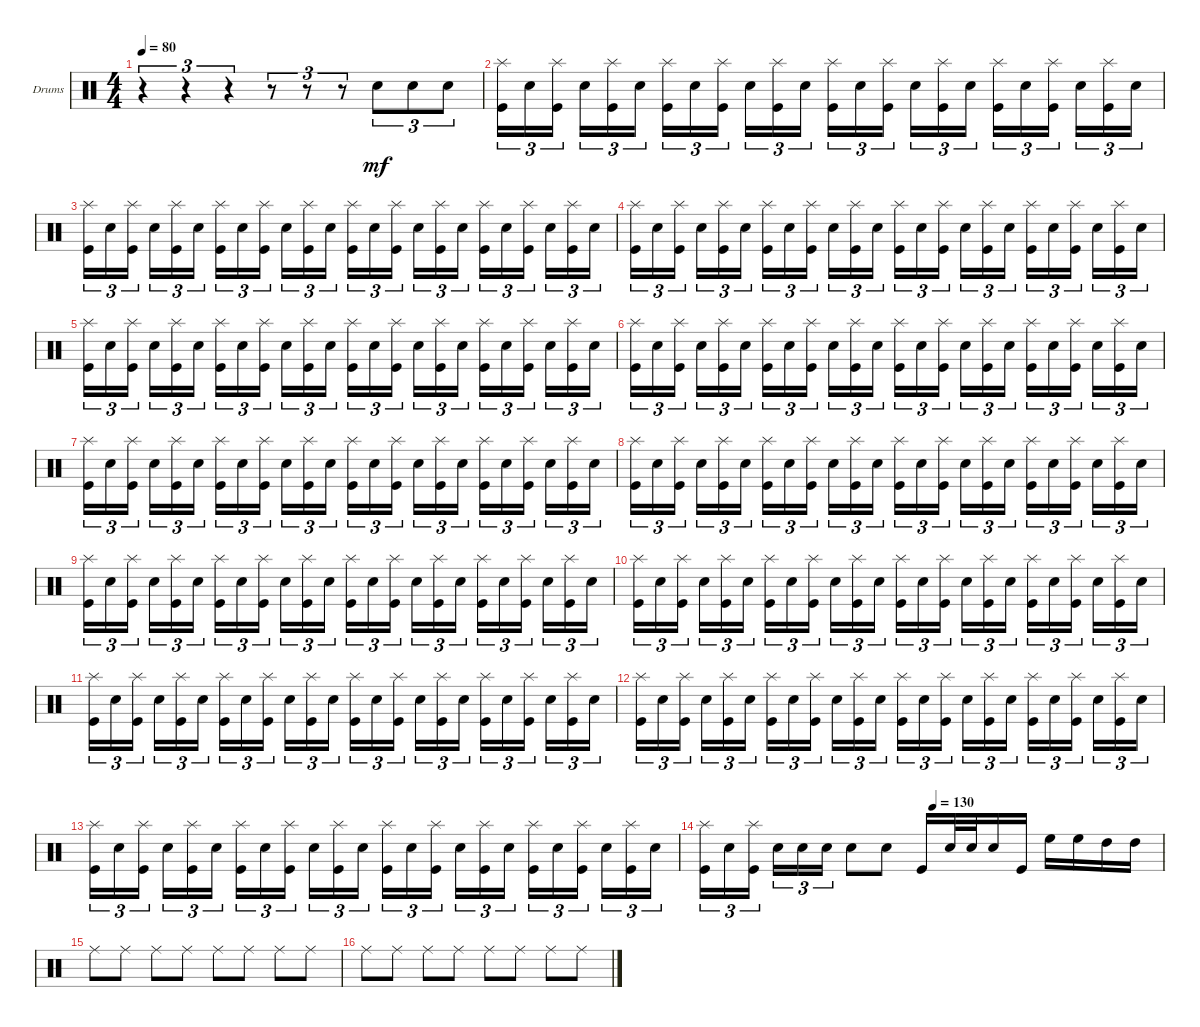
\defaultSystemsLayout 4
\bracketExtendMode groupsimilarinstruments
\firstSystemTrackNameOrientation horizontal
\otherSystemsTrackNameOrientation horizontal
\track ("Drumkit" "Drums") {instrument percussion}
\staff {score}
\articulation defaults
\ts (4 4)
\tempo 80
\clef neutral
\ks c
r.4{tu (3 2) dy mf} r.4{tu (3 2)} r.4{tu (3 2)} r.8{tu (3 2)} r.8{tu (3 2)} r.8{tu (3 2)} "Snare (hit) 2".8{tu (3 2)} "Snare (hit) 2".8{tu (3 2)} "Snare (hit) 2".8{tu (3 2)} |
("Kick (hit)" "Splash (hit)").16{tu (3 2)} "Snare (hit) 2".16{tu (3 2)} ("Kick (hit)" "Splash (hit)").16{tu (3 2)} "Snare (hit) 2".16{tu (3 2)} ("Kick (hit)" "Splash (hit)").16{tu (3 2)} "Snare (hit) 2".16{tu (3 2)} ("Kick (hit)" "Splash (hit)").16{tu (3 2)} "Snare (hit) 2".16{tu (3 2)} ("Kick (hit)" "Splash (hit)").16{tu (3 2)} "Snare (hit) 2".16{tu (3 2)} ("Kick (hit)" "Splash (hit)").16{tu (3 2)} "Snare (hit) 2".16{tu (3 2)} ("Kick (hit)" "Splash (hit)").16{tu (3 2)} "Snare (hit) 2".16{tu (3 2)} ("Kick (hit)" "Splash (hit)").16{tu (3 2)} "Snare (hit) 2".16{tu (3 2)} ("Kick (hit)" "Splash (hit)").16{tu (3 2)} "Snare (hit) 2".16{tu (3 2)} ("Kick (hit)" "Splash (hit)").16{tu (3 2)} "Snare (hit) 2".16{tu (3 2)} ("Kick (hit)" "Splash (hit)").16{tu (3 2)} "Snare (hit) 2".16{tu (3 2)} ("Kick (hit)" "Splash (hit)").16{tu (3 2)} "Snare (hit) 2".16{tu (3 2)} |
("Kick (hit)" "Splash (hit)").16{tu (3 2)} "Snare (hit) 2".16{tu (3 2)} ("Kick (hit)" "Splash (hit)").16{tu (3 2)} "Snare (hit) 2".16{tu (3 2)} ("Kick (hit)" "Splash (hit)").16{tu (3 2)} "Snare (hit) 2".16{tu (3 2)} ("Kick (hit)" "Splash (hit)").16{tu (3 2)} "Snare (hit) 2".16{tu (3 2)} ("Kick (hit)" "Splash (hit)").16{tu (3 2)} "Snare (hit) 2".16{tu (3 2)} ("Kick (hit)" "Splash (hit)").16{tu (3 2)} "Snare (hit) 2".16{tu (3 2)} ("Kick (hit)" "Splash (hit)").16{tu (3 2)} "Snare (hit) 2".16{tu (3 2)} ("Kick (hit)" "Splash (hit)").16{tu (3 2)} "Snare (hit) 2".16{tu (3 2)} ("Kick (hit)" "Splash (hit)").16{tu (3 2)} "Snare (hit) 2".16{tu (3 2)} ("Kick (hit)" "Splash (hit)").16{tu (3 2)} "Snare (hit) 2".16{tu (3 2)} ("Kick (hit)" "Splash (hit)").16{tu (3 2)} "Snare (hit) 2".16{tu (3 2)} ("Kick (hit)" "Splash (hit)").16{tu (3 2)} "Snare (hit) 2".16{tu (3 2)} |
("Kick (hit)" "Splash (hit)").16{tu (3 2)} "Snare (hit) 2".16{tu (3 2)} ("Kick (hit)" "Splash (hit)").16{tu (3 2)} "Snare (hit) 2".16{tu (3 2)} ("Kick (hit)" "Splash (hit)").16{tu (3 2)} "Snare (hit) 2".16{tu (3 2)} ("Kick (hit)" "Splash (hit)").16{tu (3 2)} "Snare (hit) 2".16{tu (3 2)} ("Kick (hit)" "Splash (hit)").16{tu (3 2)} "Snare (hit) 2".16{tu (3 2)} ("Kick (hit)" "Splash (hit)").16{tu (3 2)} "Snare (hit) 2".16{tu (3 2)} ("Kick (hit)" "Splash (hit)").16{tu (3 2)} "Snare (hit) 2".16{tu (3 2)} ("Kick (hit)" "Splash (hit)").16{tu (3 2)} "Snare (hit) 2".16{tu (3 2)} ("Kick (hit)" "Splash (hit)").16{tu (3 2)} "Snare (hit) 2".16{tu (3 2)} ("Kick (hit)" "Splash (hit)").16{tu (3 2)} "Snare (hit) 2".16{tu (3 2)} ("Kick (hit)" "Splash (hit)").16{tu (3 2)} "Snare (hit) 2".16{tu (3 2)} ("Kick (hit)" "Splash (hit)").16{tu (3 2)} "Snare (hit) 2".16{tu (3 2)} |
("Kick (hit)" "Splash (hit)").16{tu (3 2)} "Snare (hit) 2".16{tu (3 2)} ("Kick (hit)" "Splash (hit)").16{tu (3 2)} "Snare (hit) 2".16{tu (3 2)} ("Kick (hit)" "Splash (hit)").16{tu (3 2)} "Snare (hit) 2".16{tu (3 2)} ("Kick (hit)" "Splash (hit)").16{tu (3 2)} "Snare (hit) 2".16{tu (3 2)} ("Kick (hit)" "Splash (hit)").16{tu (3 2)} "Snare (hit) 2".16{tu (3 2)} ("Kick (hit)" "Splash (hit)").16{tu (3 2)} "Snare (hit) 2".16{tu (3 2)} ("Kick (hit)" "Splash (hit)").16{tu (3 2)} "Snare (hit) 2".16{tu (3 2)} ("Kick (hit)" "Splash (hit)").16{tu (3 2)} "Snare (hit) 2".16{tu (3 2)} ("Kick (hit)" "Splash (hit)").16{tu (3 2)} "Snare (hit) 2".16{tu (3 2)} ("Kick (hit)" "Splash (hit)").16{tu (3 2)} "Snare (hit) 2".16{tu (3 2)} ("Kick (hit)" "Splash (hit)").16{tu (3 2)} "Snare (hit) 2".16{tu (3 2)} ("Kick (hit)" "Splash (hit)").16{tu (3 2)} "Snare (hit) 2".16{tu (3 2)} |
("Kick (hit)" "Splash (hit)").16{tu (3 2)} "Snare (hit) 2".16{tu (3 2)} ("Kick (hit)" "Splash (hit)").16{tu (3 2)} "Snare (hit) 2".16{tu (3 2)} ("Kick (hit)" "Splash (hit)").16{tu (3 2)} "Snare (hit) 2".16{tu (3 2)} ("Kick (hit)" "Splash (hit)").16{tu (3 2)} "Snare (hit) 2".16{tu (3 2)} ("Kick (hit)" "Splash (hit)").16{tu (3 2)} "Snare (hit) 2".16{tu (3 2)} ("Kick (hit)" "Splash (hit)").16{tu (3 2)} "Snare (hit) 2".16{tu (3 2)} ("Kick (hit)" "Splash (hit)").16{tu (3 2)} "Snare (hit) 2".16{tu (3 2)} ("Kick (hit)" "Splash (hit)").16{tu (3 2)} "Snare (hit) 2".16{tu (3 2)} ("Kick (hit)" "Splash (hit)").16{tu (3 2)} "Snare (hit) 2".16{tu (3 2)} ("Kick (hit)" "Splash (hit)").16{tu (3 2)} "Snare (hit) 2".16{tu (3 2)} ("Kick (hit)" "Splash (hit)").16{tu (3 2)} "Snare (hit) 2".16{tu (3 2)} ("Kick (hit)" "Splash (hit)").16{tu (3 2)} "Snare (hit) 2".16{tu (3 2)} |
("Kick (hit)" "Splash (hit)").16{tu (3 2)} "Snare (hit) 2".16{tu (3 2)} ("Kick (hit)" "Splash (hit)").16{tu (3 2)} "Snare (hit) 2".16{tu (3 2)} ("Kick (hit)" "Splash (hit)").16{tu (3 2)} "Snare (hit) 2".16{tu (3 2)} ("Kick (hit)" "Splash (hit)").16{tu (3 2)} "Snare (hit) 2".16{tu (3 2)} ("Kick (hit)" "Splash (hit)").16{tu (3 2)} "Snare (hit) 2".16{tu (3 2)} ("Kick (hit)" "Splash (hit)").16{tu (3 2)} "Snare (hit) 2".16{tu (3 2)} ("Kick (hit)" "Splash (hit)").16{tu (3 2)} "Snare (hit) 2".16{tu (3 2)} ("Kick (hit)" "Splash (hit)").16{tu (3 2)} "Snare (hit) 2".16{tu (3 2)} ("Kick (hit)" "Splash (hit)").16{tu (3 2)} "Snare (hit) 2".16{tu (3 2)} ("Kick (hit)" "Splash (hit)").16{tu (3 2)} "Snare (hit) 2".16{tu (3 2)} ("Kick (hit)" "Splash (hit)").16{tu (3 2)} "Snare (hit) 2".16{tu (3 2)} ("Kick (hit)" "Splash (hit)").16{tu (3 2)} "Snare (hit) 2".16{tu (3 2)} |
("Kick (hit)" "Splash (hit)").16{tu (3 2)} "Snare (hit) 2".16{tu (3 2)} ("Kick (hit)" "Splash (hit)").16{tu (3 2)} "Snare (hit) 2".16{tu (3 2)} ("Kick (hit)" "Splash (hit)").16{tu (3 2)} "Snare (hit) 2".16{tu (3 2)} ("Kick (hit)" "Splash (hit)").16{tu (3 2)} "Snare (hit) 2".16{tu (3 2)} ("Kick (hit)" "Splash (hit)").16{tu (3 2)} "Snare (hit) 2".16{tu (3 2)} ("Kick (hit)" "Splash (hit)").16{tu (3 2)} "Snare (hit) 2".16{tu (3 2)} ("Kick (hit)" "Splash (hit)").16{tu (3 2)} "Snare (hit) 2".16{tu (3 2)} ("Kick (hit)" "Splash (hit)").16{tu (3 2)} "Snare (hit) 2".16{tu (3 2)} ("Kick (hit)" "Splash (hit)").16{tu (3 2)} "Snare (hit) 2".16{tu (3 2)} ("Kick (hit)" "Splash (hit)").16{tu (3 2)} "Snare (hit) 2".16{tu (3 2)} ("Kick (hit)" "Splash (hit)").16{tu (3 2)} "Snare (hit) 2".16{tu (3 2)} ("Kick (hit)" "Splash (hit)").16{tu (3 2)} "Snare (hit) 2".16{tu (3 2)} |
("Kick (hit)" "Splash (hit)").16{tu (3 2)} "Snare (hit) 2".16{tu (3 2)} ("Kick (hit)" "Splash (hit)").16{tu (3 2)} "Snare (hit) 2".16{tu (3 2)} ("Kick (hit)" "Splash (hit)").16{tu (3 2)} "Snare (hit) 2".16{tu (3 2)} ("Kick (hit)" "Splash (hit)").16{tu (3 2)} "Snare (hit) 2".16{tu (3 2)} ("Kick (hit)" "Splash (hit)").16{tu (3 2)} "Snare (hit) 2".16{tu (3 2)} ("Kick (hit)" "Splash (hit)").16{tu (3 2)} "Snare (hit) 2".16{tu (3 2)} ("Kick (hit)" "Splash (hit)").16{tu (3 2)} "Snare (hit) 2".16{tu (3 2)} ("Kick (hit)" "Splash (hit)").16{tu (3 2)} "Snare (hit) 2".16{tu (3 2)} ("Kick (hit)" "Splash (hit)").16{tu (3 2)} "Snare (hit) 2".16{tu (3 2)} ("Kick (hit)" "Splash (hit)").16{tu (3 2)} "Snare (hit) 2".16{tu (3 2)} ("Kick (hit)" "Splash (hit)").16{tu (3 2)} "Snare (hit) 2".16{tu (3 2)} ("Kick (hit)" "Splash (hit)").16{tu (3 2)} "Snare (hit) 2".16{tu (3 2)} |
("Kick (hit)" "Splash (hit)").16{tu (3 2)} "Snare (hit) 2".16{tu (3 2)} ("Kick (hit)" "Splash (hit)").16{tu (3 2)} "Snare (hit) 2".16{tu (3 2)} ("Kick (hit)" "Splash (hit)").16{tu (3 2)} "Snare (hit) 2".16{tu (3 2)} ("Kick (hit)" "Splash (hit)").16{tu (3 2)} "Snare (hit) 2".16{tu (3 2)} ("Kick (hit)" "Splash (hit)").16{tu (3 2)} "Snare (hit) 2".16{tu (3 2)} ("Kick (hit)" "Splash (hit)").16{tu (3 2)} "Snare (hit) 2".16{tu (3 2)} ("Kick (hit)" "Splash (hit)").16{tu (3 2)} "Snare (hit) 2".16{tu (3 2)} ("Kick (hit)" "Splash (hit)").16{tu (3 2)} "Snare (hit) 2".16{tu (3 2)} ("Kick (hit)" "Splash (hit)").16{tu (3 2)} "Snare (hit) 2".16{tu (3 2)} ("Kick (hit)" "Splash (hit)").16{tu (3 2)} "Snare (hit) 2".16{tu (3 2)} ("Kick (hit)" "Splash (hit)").16{tu (3 2)} "Snare (hit) 2".16{tu (3 2)} ("Kick (hit)" "Splash (hit)").16{tu (3 2)} "Snare (hit) 2".16{tu (3 2)} |
("Kick (hit)" "Splash (hit)").16{tu (3 2)} "Snare (hit) 2".16{tu (3 2)} ("Kick (hit)" "Splash (hit)").16{tu (3 2)} "Snare (hit) 2".16{tu (3 2)} ("Kick (hit)" "Splash (hit)").16{tu (3 2)} "Snare (hit) 2".16{tu (3 2)} ("Kick (hit)" "Splash (hit)").16{tu (3 2)} "Snare (hit) 2".16{tu (3 2)} ("Kick (hit)" "Splash (hit)").16{tu (3 2)} "Snare (hit) 2".16{tu (3 2)} ("Kick (hit)" "Splash (hit)").16{tu (3 2)} "Snare (hit) 2".16{tu (3 2)} ("Kick (hit)" "Splash (hit)").16{tu (3 2)} "Snare (hit) 2".16{tu (3 2)} ("Kick (hit)" "Splash (hit)").16{tu (3 2)} "Snare (hit) 2".16{tu (3 2)} ("Kick (hit)" "Splash (hit)").16{tu (3 2)} "Snare (hit) 2".16{tu (3 2)} ("Kick (hit)" "Splash (hit)").16{tu (3 2)} "Snare (hit) 2".16{tu (3 2)} ("Kick (hit)" "Splash (hit)").16{tu (3 2)} "Snare (hit) 2".16{tu (3 2)} ("Kick (hit)" "Splash (hit)").16{tu (3 2)} "Snare (hit) 2".16{tu (3 2)} |
("Kick (hit)" "Splash (hit)").16{tu (3 2)} "Snare (hit) 2".16{tu (3 2)} ("Kick (hit)" "Splash (hit)").16{tu (3 2)} "Snare (hit) 2".16{tu (3 2)} ("Kick (hit)" "Splash (hit)").16{tu (3 2)} "Snare (hit) 2".16{tu (3 2)} ("Kick (hit)" "Splash (hit)").16{tu (3 2)} "Snare (hit) 2".16{tu (3 2)} ("Kick (hit)" "Splash (hit)").16{tu (3 2)} "Snare (hit) 2".16{tu (3 2)} ("Kick (hit)" "Splash (hit)").16{tu (3 2)} "Snare (hit) 2".16{tu (3 2)} ("Kick (hit)" "Splash (hit)").16{tu (3 2)} "Snare (hit) 2".16{tu (3 2)} ("Kick (hit)" "Splash (hit)").16{tu (3 2)} "Snare (hit) 2".16{tu (3 2)} ("Kick (hit)" "Splash (hit)").16{tu (3 2)} "Snare (hit) 2".16{tu (3 2)} ("Kick (hit)" "Splash (hit)").16{tu (3 2)} "Snare (hit) 2".16{tu (3 2)} ("Kick (hit)" "Splash (hit)").16{tu (3 2)} "Snare (hit) 2".16{tu (3 2)} ("Kick (hit)" "Splash (hit)").16{tu (3 2)} "Snare (hit) 2".16{tu (3 2)} |
("Kick (hit)" "Splash (hit)").16{tu (3 2)} "Snare (hit) 2".16{tu (3 2)} ("Kick (hit)" "Splash (hit)").16{tu (3 2)} "Snare (hit) 2".16{tu (3 2)} ("Kick (hit)" "Splash (hit)").16{tu (3 2)} "Snare (hit) 2".16{tu (3 2)} ("Kick (hit)" "Splash (hit)").16{tu (3 2)} "Snare (hit) 2".16{tu (3 2)} ("Kick (hit)" "Splash (hit)").16{tu (3 2)} "Snare (hit) 2".16{tu (3 2)} ("Kick (hit)" "Splash (hit)").16{tu (3 2)} "Snare (hit) 2".16{tu (3 2)} ("Kick (hit)" "Splash (hit)").16{tu (3 2)} "Snare (hit) 2".16{tu (3 2)} ("Kick (hit)" "Splash (hit)").16{tu (3 2)} "Snare (hit) 2".16{tu (3 2)} ("Kick (hit)" "Splash (hit)").16{tu (3 2)} "Snare (hit) 2".16{tu (3 2)} ("Kick (hit)" "Splash (hit)").16{tu (3 2)} "Snare (hit) 2".16{tu (3 2)} ("Kick (hit)" "Splash (hit)").16{tu (3 2)} "Snare (hit) 2".16{tu (3 2)} ("Kick (hit)" "Splash (hit)").16{tu (3 2)} "Snare (hit) 2".16{tu (3 2)} |
\tempo (130 0.5)
("Kick (hit)" "Splash (hit)").16{tu (3 2)} "Snare (hit) 2".16{tu (3 2)} ("Kick (hit)" "Splash (hit)").16{tu (3 2)} "Snare (hit) 2".16{tu (3 2)} "Snare (hit) 2".16{tu (3 2)} "Snare (hit) 2".16{tu (3 2)} "Snare (hit) 2".8 "Snare (hit) 2".8 "Kick (hit)".16 "Snare (hit) 2".32 "Snare (hit) 2".32 "Snare (hit) 2".16 "Kick (hit)".16 "High Floor Tom (hit)".16 "High Floor Tom (hit)".16 "High Tom (hit)".16 "High Tom (hit)".16 |
"Ride (middle)".8 "Ride (middle)".8 "Ride (middle)".8 "Ride (middle)".8 "Ride (middle)".8 "Ride (middle)".8 "Ride (middle)".8 "Ride (middle)".8 |
"Ride (middle)".8 "Ride (middle)".8 "Ride (middle)".8 "Ride (middle)".8 "Ride (middle)".8 "Ride (middle)".8 "Ride (middle)".8 "Ride (middle)".8
